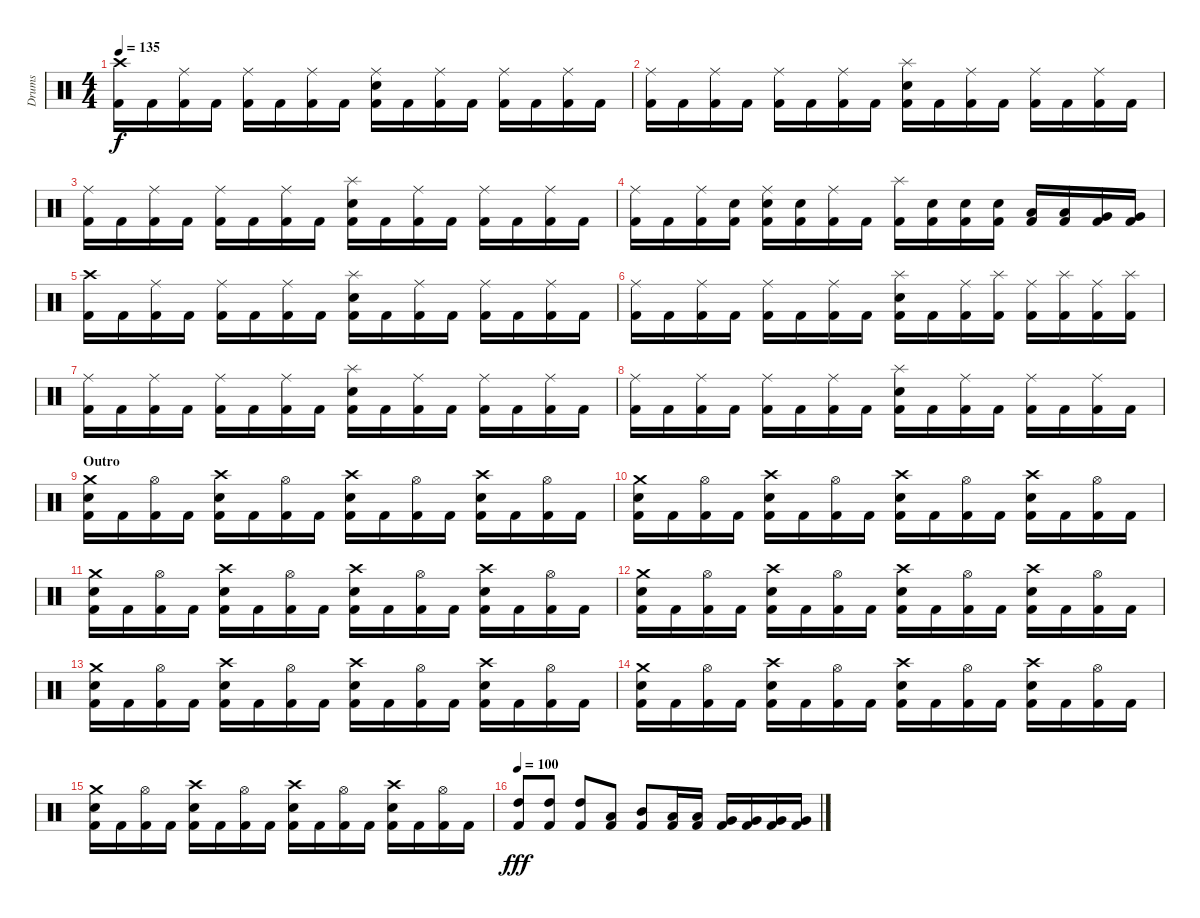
\track ("Drums" "Drums") {instrument percussion}
\staff {score}
\articulation defaults
\ts (4 4)
\tempo 135
\clef neutral
\ks c
("Kick (hit) 2" "Crash high (hit)").16{dy f} "Kick (hit) 2".16 ("Kick (hit) 2" "Ride (middle)").16 "Kick (hit) 2".16 ("Kick (hit) 2" "Ride (middle)").16 "Kick (hit) 2".16 ("Kick (hit) 2" "Ride (middle)").16 "Kick (hit) 2".16 ("Kick (hit) 2" "Electric Snare (hit)" "Ride (middle)").16 "Kick (hit) 2".16 ("Kick (hit) 2" "Ride (middle)").16 "Kick (hit) 2".16 ("Kick (hit) 2" "Ride (middle)").16 "Kick (hit) 2".16 ("Kick (hit) 2" "Ride (middle)").16 "Kick (hit) 2".16 |
("Kick (hit) 2" "Ride (middle)").16 "Kick (hit) 2".16 ("Kick (hit) 2" "Ride (middle)").16 "Kick (hit) 2".16 ("Kick (hit) 2" "Ride (middle)").16 "Kick (hit) 2".16 ("Kick (hit) 2" "Ride (middle)").16 "Kick (hit) 2".16 ("Kick (hit) 2" "Electric Snare (hit)" "Splash (hit)").16 "Kick (hit) 2".16 ("Kick (hit) 2" "Ride (middle)").16 "Kick (hit) 2".16 ("Kick (hit) 2" "Ride (middle)").16 "Kick (hit) 2".16 ("Kick (hit) 2" "Ride (middle)").16 "Kick (hit) 2".16 |
("Kick (hit) 2" "Ride (middle)").16 "Kick (hit) 2".16 ("Kick (hit) 2" "Ride (middle)").16 "Kick (hit) 2".16 ("Kick (hit) 2" "Ride (middle)").16 "Kick (hit) 2".16 ("Kick (hit) 2" "Ride (middle)").16 "Kick (hit) 2".16 ("Kick (hit) 2" "Electric Snare (hit)" "Splash (hit)").16 "Kick (hit) 2".16 ("Kick (hit) 2" "Ride (middle)").16 "Kick (hit) 2".16 ("Kick (hit) 2" "Ride (middle)").16 "Kick (hit) 2".16 ("Kick (hit) 2" "Ride (middle)").16 "Kick (hit) 2".16 |
("Kick (hit) 2" "Ride (middle)").16 "Kick (hit) 2".16 ("Kick (hit) 2" "Ride (middle)").16 ("Kick (hit) 2" "Electric Snare (hit)").16 ("Kick (hit) 2" "Electric Snare (hit)" "Ride (middle)").16 ("Kick (hit) 2" "Electric Snare (hit)").16 ("Kick (hit) 2" "Ride (middle)").16 "Kick (hit) 2".16 ("Kick (hit) 2" "Splash (hit)").16 ("Kick (hit) 2" "Electric Snare (hit)").16 ("Kick (hit) 2" "Electric Snare (hit)").16 ("Kick (hit) 2" "Electric Snare (hit)").16 ("Kick (hit) 2" "Low Tom (hit)").16 ("Kick (hit) 2" "Low Tom (hit)").16 ("Kick (hit) 2" "Very Low Tom (hit)").16 ("Kick (hit) 2" "Very Low Tom (hit)").16 |
("Kick (hit) 2" "Crash high (hit)").16 "Kick (hit) 2".16 ("Kick (hit) 2" "Ride (middle)").16 "Kick (hit) 2".16 ("Kick (hit) 2" "Ride (middle)").16 "Kick (hit) 2".16 ("Kick (hit) 2" "Ride (middle)").16 "Kick (hit) 2".16 ("Kick (hit) 2" "Electric Snare (hit)" "Splash (hit)").16 "Kick (hit) 2".16 ("Kick (hit) 2" "Ride (middle)").16 "Kick (hit) 2".16 ("Kick (hit) 2" "Ride (middle)").16 "Kick (hit) 2".16 ("Kick (hit) 2" "Ride (middle)").16 "Kick (hit) 2".16 |
("Kick (hit) 2" "Ride (middle)").16 "Kick (hit) 2".16 ("Kick (hit) 2" "Ride (middle)").16 "Kick (hit) 2".16 ("Kick (hit) 2" "Ride (middle)").16 "Kick (hit) 2".16 ("Kick (hit) 2" "Ride (middle)").16 "Kick (hit) 2".16 ("Kick (hit) 2" "Electric Snare (hit)" "Splash (hit)").16 "Kick (hit) 2".16 ("Kick (hit) 2" "Ride (middle)").16 ("Kick (hit) 2" "Splash (hit)").16 ("Kick (hit) 2" "Ride (middle)").16 ("Kick (hit) 2" "Splash (hit)").16 ("Kick (hit) 2" "Ride (middle)").16 ("Kick (hit) 2" "Splash (hit)").16 |
("Kick (hit) 2" "Ride (middle)").16 "Kick (hit) 2".16 ("Kick (hit) 2" "Ride (middle)").16 "Kick (hit) 2".16 ("Kick (hit) 2" "Ride (middle)").16 "Kick (hit) 2".16 ("Kick (hit) 2" "Ride (middle)").16 "Kick (hit) 2".16 ("Kick (hit) 2" "Electric Snare (hit)" "Splash (hit)").16 "Kick (hit) 2".16 ("Kick (hit) 2" "Ride (middle)").16 "Kick (hit) 2".16 ("Kick (hit) 2" "Ride (middle)").16 "Kick (hit) 2".16 ("Kick (hit) 2" "Ride (middle)").16 "Kick (hit) 2".16 |
("Kick (hit) 2" "Ride (middle)").16 "Kick (hit) 2".16 ("Kick (hit) 2" "Ride (middle)").16 "Kick (hit) 2".16 ("Kick (hit) 2" "Ride (middle)").16 "Kick (hit) 2".16 ("Kick (hit) 2" "Ride (middle)").16 "Kick (hit) 2".16 ("Kick (hit) 2" "Electric Snare (hit)" "Splash (hit)").16 "Kick (hit) 2".16 ("Kick (hit) 2" "Ride (middle)").16 "Kick (hit) 2".16 ("Kick (hit) 2" "Ride (middle)").16 "Kick (hit) 2".16 ("Kick (hit) 2" "Ride (middle)").16 "Kick (hit) 2".16 |
\section ("" "Outro")
("Kick (hit) 2" "Electric Snare (hit)" "Crash medium (hit)").16 "Kick (hit) 2".16 ("Kick (hit) 2" "Hi-Hat (open)").16 "Kick (hit) 2".16 ("Kick (hit) 2" "Electric Snare (hit)" "Crash high (hit)").16 "Kick (hit) 2".16 ("Kick (hit) 2" "Hi-Hat (open)").16 "Kick (hit) 2".16 ("Kick (hit) 2" "Electric Snare (hit)" "Crash high (hit)").16 "Kick (hit) 2".16 ("Kick (hit) 2" "Hi-Hat (open)").16 "Kick (hit) 2".16 ("Kick (hit) 2" "Electric Snare (hit)" "Crash high (hit)").16 "Kick (hit) 2".16 ("Kick (hit) 2" "Hi-Hat (open)").16 "Kick (hit) 2".16 |
("Kick (hit) 2" "Electric Snare (hit)" "Crash medium (hit)").16 "Kick (hit) 2".16 ("Kick (hit) 2" "Hi-Hat (open)").16 "Kick (hit) 2".16 ("Kick (hit) 2" "Electric Snare (hit)" "Crash high (hit)").16 "Kick (hit) 2".16 ("Kick (hit) 2" "Hi-Hat (open)").16 "Kick (hit) 2".16 ("Kick (hit) 2" "Electric Snare (hit)" "Crash high (hit)").16 "Kick (hit) 2".16 ("Kick (hit) 2" "Hi-Hat (open)").16 "Kick (hit) 2".16 ("Kick (hit) 2" "Electric Snare (hit)" "Crash high (hit)").16 "Kick (hit) 2".16 ("Kick (hit) 2" "Hi-Hat (open)").16 "Kick (hit) 2".16 |
("Kick (hit) 2" "Electric Snare (hit)" "Crash medium (hit)").16 "Kick (hit) 2".16 ("Kick (hit) 2" "Hi-Hat (open)").16 "Kick (hit) 2".16 ("Kick (hit) 2" "Electric Snare (hit)" "Crash high (hit)").16 "Kick (hit) 2".16 ("Kick (hit) 2" "Hi-Hat (open)").16 "Kick (hit) 2".16 ("Kick (hit) 2" "Electric Snare (hit)" "Crash high (hit)").16 "Kick (hit) 2".16 ("Kick (hit) 2" "Hi-Hat (open)").16 "Kick (hit) 2".16 ("Kick (hit) 2" "Electric Snare (hit)" "Crash high (hit)").16 "Kick (hit) 2".16 ("Kick (hit) 2" "Hi-Hat (open)").16 "Kick (hit) 2".16 |
("Kick (hit) 2" "Electric Snare (hit)" "Crash medium (hit)").16 "Kick (hit) 2".16 ("Kick (hit) 2" "Hi-Hat (open)").16 "Kick (hit) 2".16 ("Kick (hit) 2" "Electric Snare (hit)" "Crash high (hit)").16 "Kick (hit) 2".16 ("Kick (hit) 2" "Hi-Hat (open)").16 "Kick (hit) 2".16 ("Kick (hit) 2" "Electric Snare (hit)" "Crash high (hit)").16 "Kick (hit) 2".16 ("Kick (hit) 2" "Hi-Hat (open)").16 "Kick (hit) 2".16 ("Kick (hit) 2" "Electric Snare (hit)" "Crash high (hit)").16 "Kick (hit) 2".16 ("Kick (hit) 2" "Hi-Hat (open)").16 "Kick (hit) 2".16 |
("Kick (hit) 2" "Electric Snare (hit)" "Crash medium (hit)").16 "Kick (hit) 2".16 ("Kick (hit) 2" "Hi-Hat (open)").16 "Kick (hit) 2".16 ("Kick (hit) 2" "Electric Snare (hit)" "Crash high (hit)").16 "Kick (hit) 2".16 ("Kick (hit) 2" "Hi-Hat (open)").16 "Kick (hit) 2".16 ("Kick (hit) 2" "Electric Snare (hit)" "Crash high (hit)").16 "Kick (hit) 2".16 ("Kick (hit) 2" "Hi-Hat (open)").16 "Kick (hit) 2".16 ("Kick (hit) 2" "Electric Snare (hit)" "Crash high (hit)").16 "Kick (hit) 2".16 ("Kick (hit) 2" "Hi-Hat (open)").16 "Kick (hit) 2".16 |
("Kick (hit) 2" "Electric Snare (hit)" "Crash medium (hit)").16 "Kick (hit) 2".16 ("Kick (hit) 2" "Hi-Hat (open)").16 "Kick (hit) 2".16 ("Kick (hit) 2" "Electric Snare (hit)" "Crash high (hit)").16 "Kick (hit) 2".16 ("Kick (hit) 2" "Hi-Hat (open)").16 "Kick (hit) 2".16 ("Kick (hit) 2" "Electric Snare (hit)" "Crash high (hit)").16 "Kick (hit) 2".16 ("Kick (hit) 2" "Hi-Hat (open)").16 "Kick (hit) 2".16 ("Kick (hit) 2" "Electric Snare (hit)" "Crash high (hit)").16 "Kick (hit) 2".16 ("Kick (hit) 2" "Hi-Hat (open)").16 "Kick (hit) 2".16 |
("Kick (hit) 2" "Electric Snare (hit)" "Crash medium (hit)").16 "Kick (hit) 2".16 ("Kick (hit) 2" "Hi-Hat (open)").16 "Kick (hit) 2".16 ("Kick (hit) 2" "Electric Snare (hit)" "Crash high (hit)").16 "Kick (hit) 2".16 ("Kick (hit) 2" "Hi-Hat (open)").16 "Kick (hit) 2".16 ("Kick (hit) 2" "Electric Snare (hit)" "Crash high (hit)").16 "Kick (hit) 2".16 ("Kick (hit) 2" "Hi-Hat (open)").16 "Kick (hit) 2".16 ("Kick (hit) 2" "Electric Snare (hit)" "Crash high (hit)").16 "Kick (hit) 2".16 ("Kick (hit) 2" "Hi-Hat (open)").16 "Kick (hit) 2".16 |
\tempo 100
("Kick (hit) 2" "High Tom (hit)").8{dy fff} ("Kick (hit) 2" "High Tom (hit)").8 ("Kick (hit) 2" "High Tom (hit)").8 ("Kick (hit) 2" "Low Tom (hit)").8 ("Kick (hit) 2" "Mid Tom (hit)").8 ("Kick (hit) 2" "Low Tom (hit)").16 ("Kick (hit) 2" "Low Tom (hit)").16 ("Kick (hit) 2" "Very Low Tom (hit)").16 ("Kick (hit) 2" "Very Low Tom (hit)").16 ("Kick (hit) 2" "Very Low Tom (hit)").16 ("Kick (hit) 2" "Very Low Tom (hit)").16
